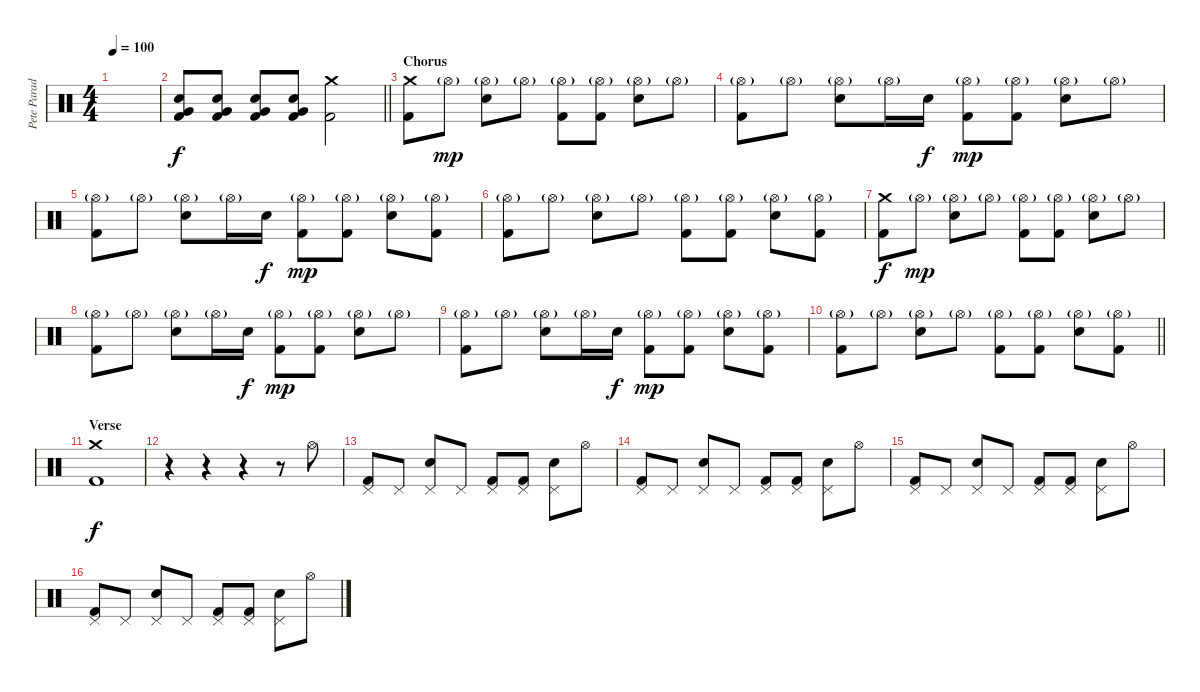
\track ("Pete Parada - Drums" "Pete Parad") {instrument percussion}
\staff {score}
\articulation defaults
\ts (4 4)
\tempo 100
\clef neutral
\ks c
|
\barLineRight lightlight
("Very Low Tom (hit)" "Electric Snare (hit)" "Kick (hit) 2").8 ("Very Low Tom (hit)" "Electric Snare (hit)" "Kick (hit) 2").8 ("Very Low Tom (hit)" "Electric Snare (hit)" "Kick (hit) 2").8 ("Very Low Tom (hit)" "Electric Snare (hit)" "Kick (hit) 2").8 ("Crash medium (hit)" "Kick (hit) 2").2 |
\section ("" "Chorus")
("Crash medium (hit)" "Kick (hit) 2").8 "Hi-Hat (open)"{g}.8{dy mp} ("Hi-Hat (open)"{g} "Electric Snare (hit)").8 "Hi-Hat (open)"{g}.8 ("Hi-Hat (open)"{g} "Kick (hit) 2").8 ("Hi-Hat (open)"{g} "Kick (hit) 2").8 ("Hi-Hat (open)"{g} "Electric Snare (hit)").8 "Hi-Hat (open)"{g}.8 |
("Hi-Hat (open)"{g} "Kick (hit) 2").8 "Hi-Hat (open)"{g}.8 ("Hi-Hat (open)"{g} "Electric Snare (hit)").8 "Hi-Hat (open)"{g}.16 "Electric Snare (hit)".16{dy f} ("Hi-Hat (open)"{g} "Kick (hit) 2").8{dy mp} ("Hi-Hat (open)"{g} "Kick (hit) 2").8 ("Hi-Hat (open)"{g} "Electric Snare (hit)").8 "Hi-Hat (open)"{g}.8 |
("Hi-Hat (open)"{g} "Kick (hit) 2").8 "Hi-Hat (open)"{g}.8 ("Hi-Hat (open)"{g} "Electric Snare (hit)").8 "Hi-Hat (open)"{g}.16 "Electric Snare (hit)".16{dy f} ("Hi-Hat (open)"{g} "Kick (hit) 2").8{dy mp} ("Hi-Hat (open)"{g} "Kick (hit) 2").8 ("Hi-Hat (open)"{g} "Electric Snare (hit)").8 ("Hi-Hat (open)"{g} "Kick (hit) 2").8 |
("Hi-Hat (open)"{g} "Kick (hit) 2").8 "Hi-Hat (open)"{g}.8 ("Hi-Hat (open)"{g} "Electric Snare (hit)").8 "Hi-Hat (open)"{g}.8 ("Hi-Hat (open)"{g} "Kick (hit) 2").8 ("Hi-Hat (open)"{g} "Kick (hit) 2").8 ("Hi-Hat (open)"{g} "Electric Snare (hit)").8 ("Hi-Hat (open)"{g} "Kick (hit) 2").8 |
("Crash medium (hit)" "Kick (hit) 2").8{dy f} "Hi-Hat (open)"{g}.8{dy mp} ("Hi-Hat (open)"{g} "Electric Snare (hit)").8 "Hi-Hat (open)"{g}.8 ("Hi-Hat (open)"{g} "Kick (hit) 2").8 ("Hi-Hat (open)"{g} "Kick (hit) 2").8 ("Hi-Hat (open)"{g} "Electric Snare (hit)").8 "Hi-Hat (open)"{g}.8 |
("Hi-Hat (open)"{g} "Kick (hit) 2").8 "Hi-Hat (open)"{g}.8 ("Hi-Hat (open)"{g} "Electric Snare (hit)").8 "Hi-Hat (open)"{g}.16 "Electric Snare (hit)".16{dy f} ("Hi-Hat (open)"{g} "Kick (hit) 2").8{dy mp} ("Hi-Hat (open)"{g} "Kick (hit) 2").8 ("Hi-Hat (open)"{g} "Electric Snare (hit)").8 "Hi-Hat (open)"{g}.8 |
("Hi-Hat (open)"{g} "Kick (hit) 2").8 "Hi-Hat (open)"{g}.8 ("Hi-Hat (open)"{g} "Electric Snare (hit)").8 "Hi-Hat (open)"{g}.16 "Electric Snare (hit)".16{dy f} ("Hi-Hat (open)"{g} "Kick (hit) 2").8{dy mp} ("Hi-Hat (open)"{g} "Kick (hit) 2").8 ("Hi-Hat (open)"{g} "Electric Snare (hit)").8 ("Hi-Hat (open)"{g} "Kick (hit) 2").8 |
\barLineRight lightlight
("Hi-Hat (open)"{g} "Kick (hit) 2").8 "Hi-Hat (open)"{g}.8 ("Hi-Hat (open)"{g} "Electric Snare (hit)").8 "Hi-Hat (open)"{g}.8 ("Hi-Hat (open)"{g} "Kick (hit) 2").8 ("Hi-Hat (open)"{g} "Kick (hit) 2").8 ("Hi-Hat (open)"{g} "Electric Snare (hit)").8 ("Hi-Hat (open)"{g} "Kick (hit) 2").8 |
\section ("" "Verse")
("Crash medium (hit)" "Kick (hit) 2").1{dy f} |
r.4 r.4 r.4 r.8 "Hi-Hat (open)".8 |
("Pedal Hi-Hat (hit)" "Kick (hit) 2").8 "Pedal Hi-Hat (hit)".8 ("Pedal Hi-Hat (hit)" "Electric Snare (hit)").8 "Pedal Hi-Hat (hit)".8 ("Pedal Hi-Hat (hit)" "Kick (hit) 2").8 ("Pedal Hi-Hat (hit)" "Kick (hit) 2").8 ("Pedal Hi-Hat (hit)" "Electric Snare (hit)").8 "Hi-Hat (open)".8 |
("Pedal Hi-Hat (hit)" "Kick (hit) 2").8 "Pedal Hi-Hat (hit)".8 ("Pedal Hi-Hat (hit)" "Electric Snare (hit)").8 "Pedal Hi-Hat (hit)".8 ("Pedal Hi-Hat (hit)" "Kick (hit) 2").8 ("Pedal Hi-Hat (hit)" "Kick (hit) 2").8 ("Pedal Hi-Hat (hit)" "Electric Snare (hit)").8 "Hi-Hat (open)".8 |
("Pedal Hi-Hat (hit)" "Kick (hit) 2").8 "Pedal Hi-Hat (hit)".8 ("Pedal Hi-Hat (hit)" "Electric Snare (hit)").8 "Pedal Hi-Hat (hit)".8 ("Pedal Hi-Hat (hit)" "Kick (hit) 2").8 ("Pedal Hi-Hat (hit)" "Kick (hit) 2").8 ("Pedal Hi-Hat (hit)" "Electric Snare (hit)").8 "Hi-Hat (open)".8 |
("Pedal Hi-Hat (hit)" "Kick (hit) 2").8 "Pedal Hi-Hat (hit)".8 ("Pedal Hi-Hat (hit)" "Electric Snare (hit)").8 "Pedal Hi-Hat (hit)".8 ("Pedal Hi-Hat (hit)" "Kick (hit) 2").8 ("Pedal Hi-Hat (hit)" "Kick (hit) 2").8 ("Pedal Hi-Hat (hit)" "Electric Snare (hit)").8 "Hi-Hat (open)".8
